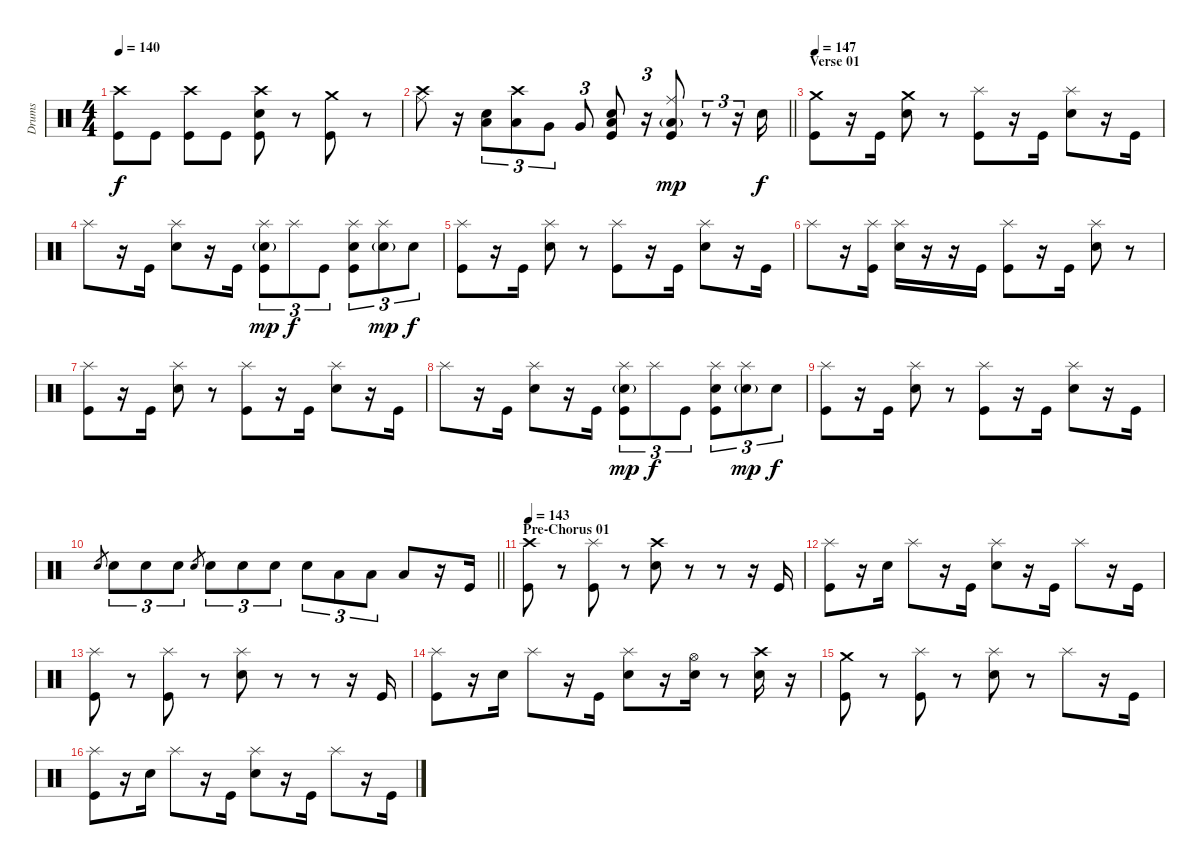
\track ("Drums" "Drums") {instrument percussion}
\staff {score}
\articulation defaults
\ts (4 4)
\tempo 140
\clef neutral
\ks c
("Crash high (hit)" "Kick (hit)").8{dy f} "Kick (hit)".8 ("Crash high (hit)" "Kick (hit)").8 "Kick (hit)".8 ("Crash high (hit)" "Electric Snare (hit)" "Kick (hit)").8 r.8 ("Crash medium (hit)" "Kick (hit)").8 r.8 |
\barLineRight lightlight
("Crash high (hit)" "Ride (middle)").8 r.16 ("Low Tom (hit)" "Electric Snare (hit)").8{tu (3 2)} ("Crash high (hit)" "Low Tom (hit)").8{tu (3 2)} "Very Low Tom (hit)".8{tu (3 2)} "Very Low Tom (hit)".8{tu (3 2)} ("Low Tom (hit)" "Snare (hit) 2" "Kick (hit)").8 r.16{tu (3 2)} ("Ride (middle)" "Low Floor Tom (hit)"{g} "Kick (hit)").8{dy mp} r.8{tu (3 2)} r.16{tu (3 2)} "Electric Snare (hit)".16{dy f} |
\section ("" "Verse 01")
\tempo 147
("Crash medium (hit)" "Kick (hit)").8 r.16 "Kick (hit)".16 ("Crash medium (hit)" "Electric Snare (hit)").8 r.8 ("Splash (hit)" "Kick (hit)").8 r.16 "Kick (hit)".16 ("Splash (hit)" "Electric Snare (hit)").8 r.16 "Kick (hit)".16 |
"Splash (hit)".8 r.16 "Kick (hit)".16 ("Splash (hit)" "Electric Snare (hit)").8 r.16 "Kick (hit)".16 ("Splash (hit)" "Electric Snare (hit)"{g} "Kick (hit)").8{tu (3 2) dy mp} "Splash (hit)".8{tu (3 2) dy f} "Kick (hit)".8{tu (3 2)} ("Splash (hit)" "Electric Snare (hit)" "Kick (hit)").8{tu (3 2)} ("Splash (hit)" "Electric Snare (hit)"{g}).8{tu (3 2) dy mp} "Electric Snare (hit)".8{tu (3 2) dy f} |
("Splash (hit)" "Kick (hit)").8 r.16 "Kick (hit)".16 ("Splash (hit)" "Electric Snare (hit)").8 r.8 ("Splash (hit)" "Kick (hit)").8 r.16 "Kick (hit)".16 ("Splash (hit)" "Electric Snare (hit)").8 r.16 "Kick (hit)".16 |
"Splash (hit)".8 r.16 ("Splash (hit)" "Kick (hit)").16 ("Splash (hit)" "Electric Snare (hit)").16 r.16 r.16 "Kick (hit)".16 ("Splash (hit)" "Kick (hit)").8 r.16 "Kick (hit)".16 ("Splash (hit)" "Electric Snare (hit)").8 r.8 |
("Splash (hit)" "Kick (hit)").8 r.16 "Kick (hit)".16 ("Splash (hit)" "Electric Snare (hit)").8 r.8 ("Splash (hit)" "Kick (hit)").8 r.16 "Kick (hit)".16 ("Splash (hit)" "Electric Snare (hit)").8 r.16 "Kick (hit)".16 |
"Splash (hit)".8 r.16 "Kick (hit)".16 ("Splash (hit)" "Electric Snare (hit)").8 r.16 "Kick (hit)".16 ("Splash (hit)" "Electric Snare (hit)"{g} "Kick (hit)").8{tu (3 2) dy mp} "Splash (hit)".8{tu (3 2) dy f} "Kick (hit)".8{tu (3 2)} ("Splash (hit)" "Electric Snare (hit)" "Kick (hit)").8{tu (3 2)} ("Splash (hit)" "Electric Snare (hit)"{g}).8{tu (3 2) dy mp} "Electric Snare (hit)".8{tu (3 2) dy f} |
("Splash (hit)" "Kick (hit)").8 r.16 "Kick (hit)".16 ("Splash (hit)" "Electric Snare (hit)").8 r.8 ("Splash (hit)" "Kick (hit)").8 r.16 "Kick (hit)".16 ("Splash (hit)" "Electric Snare (hit)").8 r.16 "Kick (hit)".16 |
\barLineRight lightlight "Electric Snare (hit)".8{gr} "Electric Snare (hit)".8{tu (3 2)} "Electric Snare (hit)".8{tu (3 2)} "Electric Snare (hit)".8{tu (3 2)} "Electric Snare (hit)".8{gr} "Electric Snare (hit)".8{tu (3 2)} "Electric Snare (hit)".8{tu (3 2)} "Electric Snare (hit)".8{tu (3 2)} "Electric Snare (hit)".8{tu (3 2)} "Low Tom (hit)".8{tu (3 2)} "Low Tom (hit)".8{tu (3 2)} "Low Tom (hit)".8
r.16 "Kick (hit)".16 |
\section ("" "Pre-Chorus 01")
\tempo 143
("Crash high (hit)" "Kick (hit)").8 r.8 ("Splash (hit)" "Kick (hit)").8 r.8 ("Crash high (hit)" "Electric Snare (hit)").8 r.8 r.8 r.16 "Kick (hit)".16 |
("Splash (hit)" "Kick (hit)").8 r.16 "Electric Snare (hit)".16 "Splash (hit)".8 r.16 "Kick (hit)".16 ("Splash (hit)" "Electric Snare (hit)").8 r.16 "Kick (hit)".16 "Splash (hit)".8 r.16 "Kick (hit)".16 |
("Splash (hit)" "Kick (hit)").8 r.8 ("Splash (hit)" "Kick (hit)").8 r.8 ("Splash (hit)" "Electric Snare (hit)").8 r.8 r.8 r.16 "Kick (hit)".16 |
("Splash (hit)" "Kick (hit)").8 r.16 "Electric Snare (hit)".16 "Splash (hit)".8 r.16 "Kick (hit)".16 ("Splash (hit)" "Electric Snare (hit)").8 r.16 ("Hi-Hat (open)" "Electric Snare (hit)").16 r.8 ("Crash high (hit)" "Electric Snare (hit)").16 r.16 |
("Crash medium (hit)" "Kick (hit)").8 r.8 ("Splash (hit)" "Kick (hit)").8 r.8 ("Splash (hit)" "Electric Snare (hit)").8 r.8 "Splash (hit)".8 r.16 "Kick (hit)".16 |
("Splash (hit)" "Kick (hit)").8 r.16 "Electric Snare (hit)".16 "Splash (hit)".8 r.16 "Kick (hit)".16 ("Splash (hit)" "Electric Snare (hit)").8 r.16 "Kick (hit)".16 "Splash (hit)".8 r.16 "Kick (hit)".16
